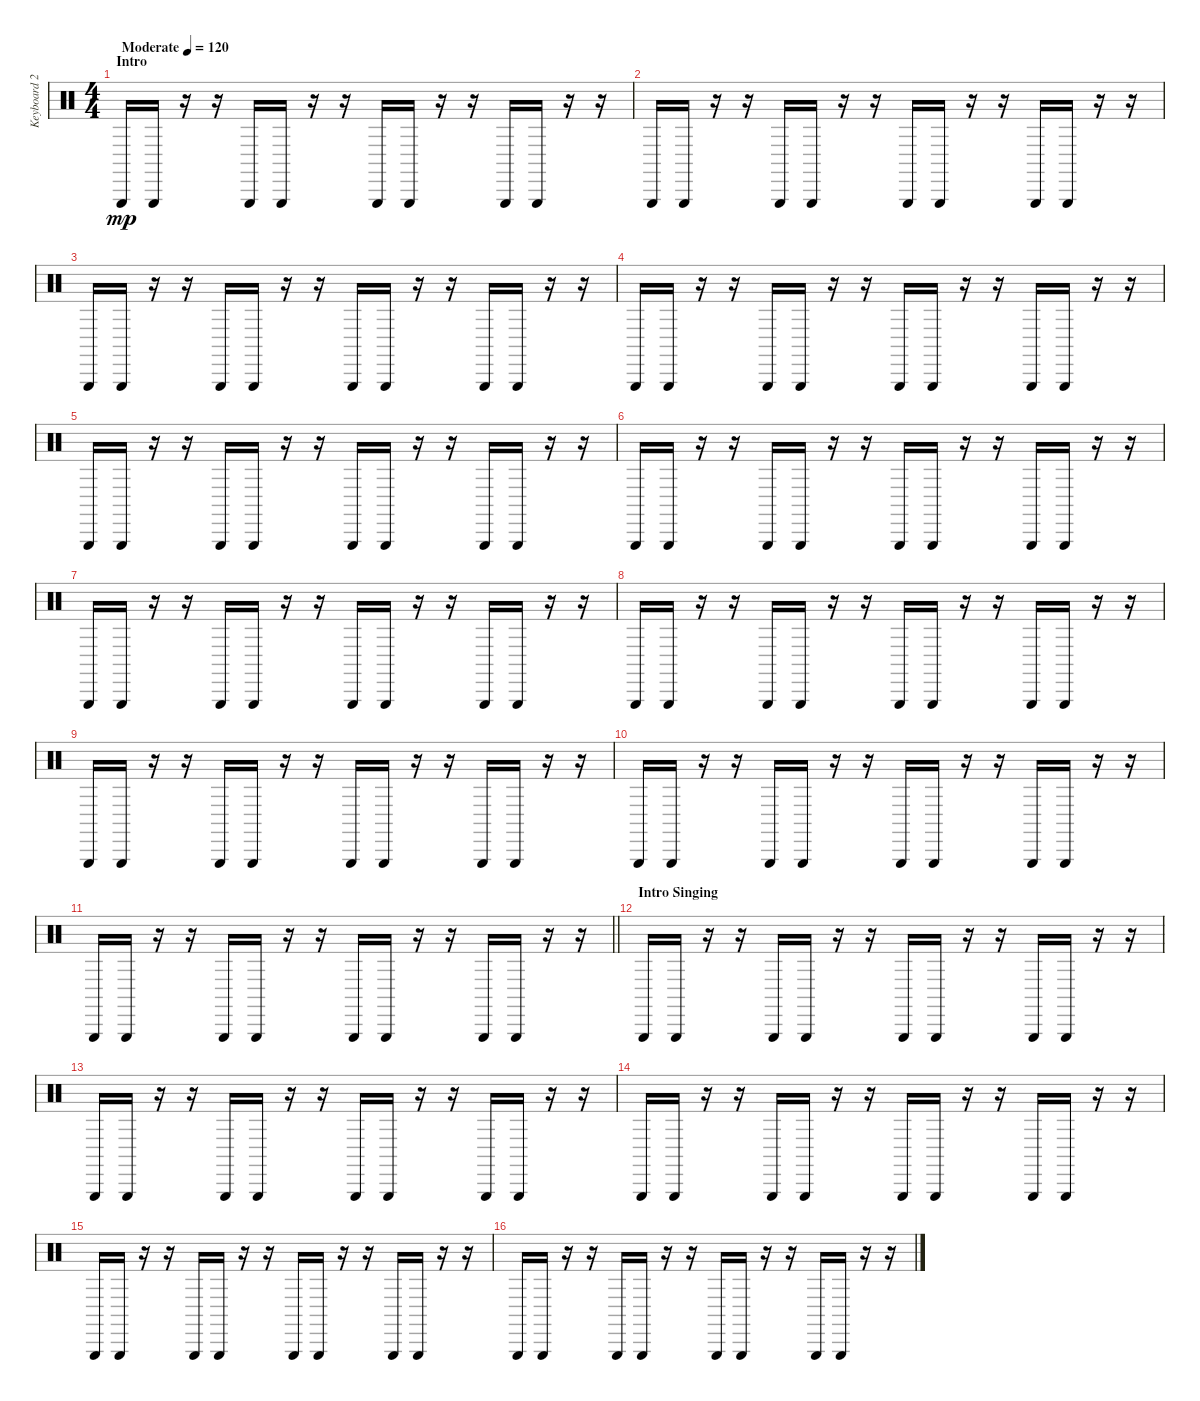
\track ("Keyboard 2" "Keyboard 2") {instrument percussion}
\staff {score}
\articulation defaults
\ts (4 4)
\section ("" "Intro")
\tempo (120 "Moderate")
\clef neutral
\ks c "Triangle (hit)".16{dy mp} "Triangle (hit)".16
r.16 r.16 "Triangle (hit)".16 "Triangle (hit)".16 r.16 r.16 "Triangle (hit)".16 "Triangle (hit)".16 r.16 r.16 "Triangle (hit)".16 "Triangle (hit)".16 r.16 r.16 |
"Triangle (hit)".16 "Triangle (hit)".16 r.16 r.16 "Triangle (hit)".16 "Triangle (hit)".16 r.16 r.16 "Triangle (hit)".16 "Triangle (hit)".16 r.16 r.16 "Triangle (hit)".16 "Triangle (hit)".16 r.16 r.16 |
"Triangle (hit)".16 "Triangle (hit)".16 r.16 r.16 "Triangle (hit)".16 "Triangle (hit)".16 r.16 r.16 "Triangle (hit)".16 "Triangle (hit)".16 r.16 r.16 "Triangle (hit)".16 "Triangle (hit)".16 r.16 r.16 |
"Triangle (hit)".16 "Triangle (hit)".16 r.16 r.16 "Triangle (hit)".16 "Triangle (hit)".16 r.16 r.16 "Triangle (hit)".16 "Triangle (hit)".16 r.16 r.16 "Triangle (hit)".16 "Triangle (hit)".16 r.16 r.16 |
"Triangle (hit)".16 "Triangle (hit)".16 r.16 r.16 "Triangle (hit)".16 "Triangle (hit)".16 r.16 r.16 "Triangle (hit)".16 "Triangle (hit)".16 r.16 r.16 "Triangle (hit)".16 "Triangle (hit)".16 r.16 r.16 |
"Triangle (hit)".16 "Triangle (hit)".16 r.16 r.16 "Triangle (hit)".16 "Triangle (hit)".16 r.16 r.16 "Triangle (hit)".16 "Triangle (hit)".16 r.16 r.16 "Triangle (hit)".16 "Triangle (hit)".16 r.16 r.16 |
"Triangle (hit)".16 "Triangle (hit)".16 r.16 r.16 "Triangle (hit)".16 "Triangle (hit)".16 r.16 r.16 "Triangle (hit)".16 "Triangle (hit)".16 r.16 r.16 "Triangle (hit)".16 "Triangle (hit)".16 r.16 r.16 |
"Triangle (hit)".16 "Triangle (hit)".16 r.16 r.16 "Triangle (hit)".16 "Triangle (hit)".16 r.16 r.16 "Triangle (hit)".16 "Triangle (hit)".16 r.16 r.16 "Triangle (hit)".16 "Triangle (hit)".16 r.16 r.16 |
"Triangle (hit)".16 "Triangle (hit)".16 r.16 r.16 "Triangle (hit)".16 "Triangle (hit)".16 r.16 r.16 "Triangle (hit)".16 "Triangle (hit)".16 r.16 r.16 "Triangle (hit)".16 "Triangle (hit)".16 r.16 r.16 |
"Triangle (hit)".16 "Triangle (hit)".16 r.16 r.16 "Triangle (hit)".16 "Triangle (hit)".16 r.16 r.16 "Triangle (hit)".16 "Triangle (hit)".16 r.16 r.16 "Triangle (hit)".16 "Triangle (hit)".16 r.16 r.16 |
\barLineRight lightlight "Triangle (hit)".16 "Triangle (hit)".16
r.16 r.16 "Triangle (hit)".16 "Triangle (hit)".16 r.16 r.16 "Triangle (hit)".16 "Triangle (hit)".16 r.16 r.16 "Triangle (hit)".16 "Triangle (hit)".16 r.16 r.16 |
\section ("" "Intro Singing")
"Triangle (hit)".16 "Triangle (hit)".16 r.16 r.16 "Triangle (hit)".16 "Triangle (hit)".16 r.16 r.16 "Triangle (hit)".16 "Triangle (hit)".16 r.16 r.16 "Triangle (hit)".16 "Triangle (hit)".16 r.16 r.16 |
"Triangle (hit)".16 "Triangle (hit)".16 r.16 r.16 "Triangle (hit)".16 "Triangle (hit)".16 r.16 r.16 "Triangle (hit)".16 "Triangle (hit)".16 r.16 r.16 "Triangle (hit)".16 "Triangle (hit)".16 r.16 r.16 |
"Triangle (hit)".16 "Triangle (hit)".16 r.16 r.16 "Triangle (hit)".16 "Triangle (hit)".16 r.16 r.16 "Triangle (hit)".16 "Triangle (hit)".16 r.16 r.16 "Triangle (hit)".16 "Triangle (hit)".16 r.16 r.16 |
"Triangle (hit)".16 "Triangle (hit)".16 r.16 r.16 "Triangle (hit)".16 "Triangle (hit)".16 r.16 r.16 "Triangle (hit)".16 "Triangle (hit)".16 r.16 r.16 "Triangle (hit)".16 "Triangle (hit)".16 r.16 r.16 |
"Triangle (hit)".16 "Triangle (hit)".16 r.16 r.16 "Triangle (hit)".16 "Triangle (hit)".16 r.16 r.16 "Triangle (hit)".16 "Triangle (hit)".16 r.16 r.16 "Triangle (hit)".16 "Triangle (hit)".16 r.16 r.16
